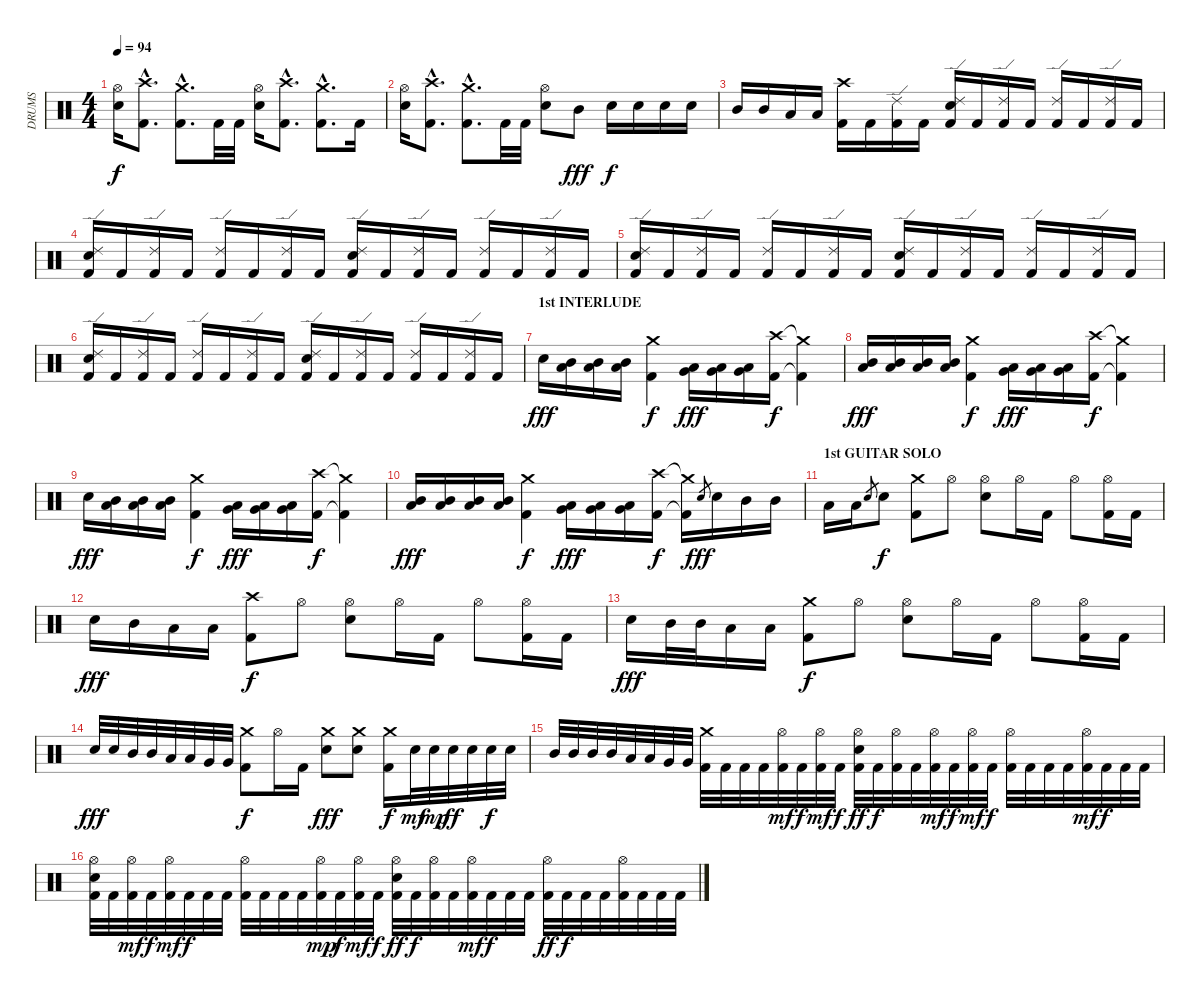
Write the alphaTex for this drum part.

\track ("DRUMS" "DRUMS") {instrument percussion}
\staff {score}
\articulation defaults
\ts (4 4)
\tempo 94
\clef neutral
\ks c
("Hi-Hat (open)" "Electric Snare (hit)").16{dy f} ("Crash high (hit)"{hac} "Kick (hit) 2"{hac}).8{d} ("Crash medium (hit)"{hac} "Kick (hit) 2"{hac}).8{d} "Kick (hit) 2".32 "Kick (hit) 2".32 ("Hi-Hat (open)" "Electric Snare (hit)").16 ("Crash high (hit)"{hac} "Kick (hit) 2"{hac}).8{d} ("Crash medium (hit)"{hac} "Kick (hit) 2"{hac}).8{d} "Kick (hit) 2".16 |
("Hi-Hat (open)" "Electric Snare (hit)").16 ("Crash high (hit)"{hac} "Kick (hit) 2"{hac}).8{d} ("Crash medium (hit)"{hac} "Kick (hit) 2"{hac}).8{d} "Kick (hit) 2".32 "Kick (hit) 2".32 ("Hi-Hat (open)" "Electric Snare (hit)").8 "Mid Tom (hit)".8{dy fff} "Electric Snare (hit)".16{dy f} "Electric Snare (hit)".16 "Electric Snare (hit)".16 "Electric Snare (hit)".16 |
"Mid Tom (hit)".16 "Mid Tom (hit)".16 "Low Tom (hit)".16 "Low Tom (hit)".16 ("Crash high (hit)" "Kick (hit) 2").16 "Kick (hit) 2".16 ("Ride (edge) 2" "Kick (hit) 2").16 "Kick (hit) 2".16 ("Ride (edge) 2" "Electric Snare (hit)" "Kick (hit) 2").16 "Kick (hit) 2".16 ("Ride (edge) 2" "Kick (hit) 2").16 "Kick (hit) 2".16 ("Ride (edge) 2" "Kick (hit) 2").16 "Kick (hit) 2".16 ("Ride (edge) 2" "Kick (hit) 2").16 "Kick (hit) 2".16 |
("Ride (edge) 2" "Electric Snare (hit)" "Kick (hit) 2").16 "Kick (hit) 2".16 ("Ride (edge) 2" "Kick (hit) 2").16 "Kick (hit) 2".16 ("Ride (edge) 2" "Kick (hit) 2").16 "Kick (hit) 2".16 ("Ride (edge) 2" "Kick (hit) 2").16 "Kick (hit) 2".16 ("Ride (edge) 2" "Electric Snare (hit)" "Kick (hit) 2").16 "Kick (hit) 2".16 ("Ride (edge) 2" "Kick (hit) 2").16 "Kick (hit) 2".16 ("Ride (edge) 2" "Kick (hit) 2").16 "Kick (hit) 2".16 ("Ride (edge) 2" "Kick (hit) 2").16 "Kick (hit) 2".16 |
("Ride (edge) 2" "Electric Snare (hit)" "Kick (hit) 2").16 "Kick (hit) 2".16 ("Ride (edge) 2" "Kick (hit) 2").16 "Kick (hit) 2".16 ("Ride (edge) 2" "Kick (hit) 2").16 "Kick (hit) 2".16 ("Ride (edge) 2" "Kick (hit) 2").16 "Kick (hit) 2".16 ("Ride (edge) 2" "Electric Snare (hit)" "Kick (hit) 2").16 "Kick (hit) 2".16 ("Ride (edge) 2" "Kick (hit) 2").16 "Kick (hit) 2".16 ("Ride (edge) 2" "Kick (hit) 2").16 "Kick (hit) 2".16 ("Ride (edge) 2" "Kick (hit) 2").16 "Kick (hit) 2".16 |
("Ride (edge) 2" "Electric Snare (hit)" "Kick (hit) 2").16 "Kick (hit) 2".16 ("Ride (edge) 2" "Kick (hit) 2").16 "Kick (hit) 2".16 ("Ride (edge) 2" "Kick (hit) 2").16 "Kick (hit) 2".16 ("Ride (edge) 2" "Kick (hit) 2").16 "Kick (hit) 2".16 ("Ride (edge) 2" "Electric Snare (hit)" "Kick (hit) 2").16 "Kick (hit) 2".16 ("Ride (edge) 2" "Kick (hit) 2").16 "Kick (hit) 2".16 ("Ride (edge) 2" "Kick (hit) 2").16 "Kick (hit) 2".16 ("Ride (edge) 2" "Kick (hit) 2").16 "Kick (hit) 2".16 |
\section ("" "1st INTERLUDE")
"Electric Snare (hit)".16{dy fff} ("Mid Tom (hit)" "Low Tom (hit)").16 ("Mid Tom (hit)" "Low Tom (hit)").16 ("Mid Tom (hit)" "Low Tom (hit)").16 ("Crash medium (hit)" "Kick (hit) 2").4{dy f} ("Low Tom (hit)" "Very Low Tom (hit)").16{dy fff} ("Low Tom (hit)" "Very Low Tom (hit)").16 ("Low Tom (hit)" "Very Low Tom (hit)").16 ("Crash high (hit)" "Kick (hit) 2").16{dy f} ("Crash medium (hit)"{t} "Kick (hit) 2"{t}).4 |
("Mid Tom (hit)" "Low Tom (hit)").16{dy fff} ("Mid Tom (hit)" "Low Tom (hit)").16 ("Mid Tom (hit)" "Low Tom (hit)").16 ("Mid Tom (hit)" "Low Tom (hit)").16 ("Crash medium (hit)" "Kick (hit) 2").4{dy f} ("Low Tom (hit)" "Very Low Tom (hit)").16{dy fff} ("Low Tom (hit)" "Very Low Tom (hit)").16 ("Low Tom (hit)" "Very Low Tom (hit)").16 ("Crash high (hit)" "Kick (hit) 2").16{dy f} ("Crash medium (hit)"{t} "Kick (hit) 2"{t}).4 |
"Electric Snare (hit)".16{dy fff} ("Mid Tom (hit)" "Low Tom (hit)").16 ("Mid Tom (hit)" "Low Tom (hit)").16 ("Mid Tom (hit)" "Low Tom (hit)").16 ("Crash medium (hit)" "Kick (hit) 2").4{dy f} ("Low Tom (hit)" "Very Low Tom (hit)").16{dy fff} ("Low Tom (hit)" "Very Low Tom (hit)").16 ("Low Tom (hit)" "Very Low Tom (hit)").16 ("Crash high (hit)" "Kick (hit) 2").16{dy f} ("Crash medium (hit)"{t} "Kick (hit) 2"{t}).4 |
("Mid Tom (hit)" "Low Tom (hit)").16{dy fff} ("Mid Tom (hit)" "Low Tom (hit)").16 ("Mid Tom (hit)" "Low Tom (hit)").16 ("Mid Tom (hit)" "Low Tom (hit)").16 ("Crash medium (hit)" "Kick (hit) 2").4{dy f} ("Low Tom (hit)" "Very Low Tom (hit)").16{dy fff} ("Low Tom (hit)" "Very Low Tom (hit)").16 ("Low Tom (hit)" "Very Low Tom (hit)").16 ("Crash high (hit)" "Kick (hit) 2").16{dy f} ("Crash medium (hit)"{t} "Kick (hit) 2"{t}).16 "Electric Snare (hit)".8{gr dy fff} "Electric Snare (hit)".16 "Mid Tom (hit)".16 "Mid Tom (hit)".16 |
\section ("" "1st GUITAR SOLO")
"Low Tom (hit)".16 "Low Tom (hit)".16 "Electric Snare (hit)".8{gr} "Electric Snare (hit)".8{dy f} ("Crash medium (hit)" "Kick (hit) 2").8 "Hi-Hat (open)".8 ("Hi-Hat (open)" "Electric Snare (hit)").8 "Hi-Hat (open)".16 "Kick (hit) 2".16 "Hi-Hat (open)".8 ("Hi-Hat (open)" "Kick (hit) 2").16 "Kick (hit) 2".16 |
"Electric Snare (hit)".16{dy fff} "Mid Tom (hit)".16 "Low Tom (hit)".16 "Low Tom (hit)".16 ("Crash high (hit)" "Kick (hit) 2").8{dy f} "Hi-Hat (open)".8 ("Hi-Hat (open)" "Electric Snare (hit)").8 "Hi-Hat (open)".16 "Kick (hit) 2".16 "Hi-Hat (open)".8 ("Hi-Hat (open)" "Kick (hit) 2").16 "Kick (hit) 2".16 |
"Electric Snare (hit)".16{dy fff} "Mid Tom (hit)".32 "Mid Tom (hit)".32 "Low Tom (hit)".16 "Low Tom (hit)".16 ("Crash medium (hit)" "Kick (hit) 2").8{dy f} "Hi-Hat (open)".8 ("Hi-Hat (open)" "Electric Snare (hit)").8 "Hi-Hat (open)".16 "Kick (hit) 2".16 "Hi-Hat (open)".8 ("Hi-Hat (open)" "Kick (hit) 2").16 "Kick (hit) 2".16 |
"Electric Snare (hit)".32{dy fff} "Electric Snare (hit)".32 "Mid Tom (hit)".32 "Mid Tom (hit)".32 "Low Tom (hit)".32 "Low Tom (hit)".32 "Very Low Tom (hit)".32 "Very Low Tom (hit)".32 ("Crash medium (hit)" "Kick (hit) 2").8{dy f} "Hi-Hat (open)".16 "Kick (hit) 2".16 ("Crash medium (hit)" "Electric Snare (hit)").8{dy fff} ("Crash medium (hit)" "Electric Snare (hit)").8 ("Crash medium (hit)" "Kick (hit) 2").16{dy f} "Electric Snare (hit)".32{dy mf} "Electric Snare (hit)".32{dy mp} "Electric Snare (hit)".32{dy ff} "Electric Snare (hit)".32 "Electric Snare (hit)".32{dy f} "Electric Snare (hit)".32 |
"Mid Tom (hit)".32 "Mid Tom (hit)".32 "Mid Tom (hit)".32 "Mid Tom (hit)".32 "Low Tom (hit)".32 "Low Tom (hit)".32 "Very Low Tom (hit)".32 "Very Low Tom (hit)".32 ("Crash medium (hit)" "Kick (hit) 2").32 "Kick (hit) 2".32 "Kick (hit) 2".32 "Kick (hit) 2".32 ("Hi-Hat (open)" "Kick (hit) 2").32{dy mf} "Kick (hit) 2".32{dy f} ("Hi-Hat (open)" "Kick (hit) 2").32{dy mf} "Kick (hit) 2".32{dy f} ("Hi-Hat (open)" "Electric Snare (hit)" "Kick (hit) 2").32{dy ff} "Kick (hit) 2".32{dy f} ("Hi-Hat (open)" "Kick (hit) 2").32 "Kick (hit) 2".32 ("Hi-Hat (open)" "Kick (hit) 2").32{dy mf} "Kick (hit) 2".32{dy f} ("Hi-Hat (open)" "Kick (hit) 2").32{dy mf} "Kick (hit) 2".32{dy f} ("Hi-Hat (open)" "Kick (hit) 2").32 "Kick (hit) 2".32 "Kick (hit) 2".32 "Kick (hit) 2".32 ("Hi-Hat (open)" "Kick (hit) 2").32{dy mf} "Kick (hit) 2".32{dy f} "Kick (hit) 2".32 "Kick (hit) 2".32 |
("Hi-Hat (open)" "Electric Snare (hit)" "Kick (hit) 2").32 "Kick (hit) 2".32 ("Hi-Hat (open)" "Kick (hit) 2").32{dy mf} "Kick (hit) 2".32{dy f} ("Hi-Hat (open)" "Kick (hit) 2").32{dy mf} "Kick (hit) 2".32{dy f} "Kick (hit) 2".32 "Kick (hit) 2".32 ("Hi-Hat (open)" "Kick (hit) 2").32 "Kick (hit) 2".32 "Kick (hit) 2".32 "Kick (hit) 2".32 ("Hi-Hat (open)" "Kick (hit) 2").32{dy mp} "Kick (hit) 2".32{dy f} ("Hi-Hat (open)" "Kick (hit) 2").32{dy mf} "Kick (hit) 2".32{dy f} ("Hi-Hat (open)" "Electric Snare (hit)" "Kick (hit) 2").32{dy ff} "Kick (hit) 2".32{dy f} ("Hi-Hat (open)" "Kick (hit) 2").32 "Kick (hit) 2".32 ("Hi-Hat (open)" "Kick (hit) 2").32{dy mf} "Kick (hit) 2".32{dy f} "Kick (hit) 2".32 "Kick (hit) 2".32 ("Hi-Hat (open)" "Kick (hit) 2").32{dy ff} "Kick (hit) 2".32{dy f} "Kick (hit) 2".32 "Kick (hit) 2".32 ("Hi-Hat (open)" "Kick (hit) 2").32 "Kick (hit) 2".32 "Kick (hit) 2".32 "Kick (hit) 2".32
